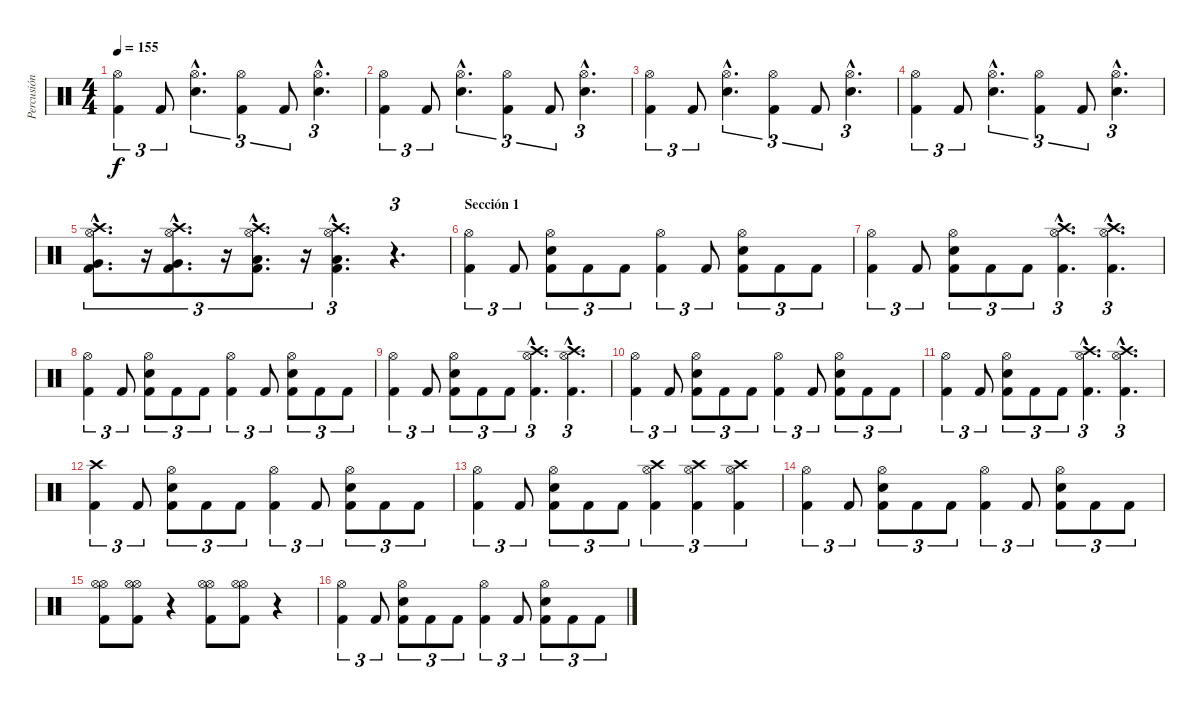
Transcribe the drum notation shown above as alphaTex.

\track ("Percusión" "Percusión") {instrument percussion}
\staff {score}
\articulation defaults
\ts (4 4)
\tempo 155
\clef neutral
\ks c
("Hi-Hat (open)" "Kick (hit) 2").4{tu (3 2) dy f} "Kick (hit) 2".8{tu (3 2)} ("Hi-Hat (open)"{hac} "Electric Snare (hit)"{hac}).4{d tu (3 2)} ("Hi-Hat (open)" "Kick (hit) 2").4{tu (3 2)} "Kick (hit) 2".8{tu (3 2)} ("Hi-Hat (open)"{hac} "Electric Snare (hit)"{hac}).4{d tu (3 2)} |
("Hi-Hat (open)" "Kick (hit) 2").4{tu (3 2)} "Kick (hit) 2".8{tu (3 2)} ("Hi-Hat (open)"{hac} "Electric Snare (hit)"{hac}).4{d tu (3 2)} ("Hi-Hat (open)" "Kick (hit) 2").4{tu (3 2)} "Kick (hit) 2".8{tu (3 2)} ("Hi-Hat (open)"{hac} "Electric Snare (hit)"{hac}).4{d tu (3 2)} |
("Hi-Hat (open)" "Kick (hit) 2").4{tu (3 2)} "Kick (hit) 2".8{tu (3 2)} ("Hi-Hat (open)"{hac} "Electric Snare (hit)"{hac}).4{d tu (3 2)} ("Hi-Hat (open)" "Kick (hit) 2").4{tu (3 2)} "Kick (hit) 2".8{tu (3 2)} ("Hi-Hat (open)"{hac} "Electric Snare (hit)"{hac}).4{d tu (3 2)} |
("Hi-Hat (open)" "Kick (hit) 2").4{tu (3 2)} "Kick (hit) 2".8{tu (3 2)} ("Hi-Hat (open)"{hac} "Electric Snare (hit)"{hac}).4{d tu (3 2)} ("Hi-Hat (open)" "Kick (hit) 2").4{tu (3 2)} "Kick (hit) 2".8{tu (3 2)} ("Hi-Hat (open)"{hac} "Electric Snare (hit)"{hac}).4{d tu (3 2)} |
("Crash high (hit)"{hac} "Hi-Hat (open)"{hac} "Very Low Tom (hit)"{hac} "Kick (hit) 2"{hac}).8{d tu (3 2)} r.16{tu (3 2)} ("Crash high (hit)"{hac} "Hi-Hat (open)"{hac} "Very Low Tom (hit)"{hac} "Kick (hit) 2"{hac}).8{d tu (3 2)} r.16{tu (3 2)} ("Crash high (hit)"{hac} "Hi-Hat (open)"{hac} "Low Tom (hit)"{hac} "Kick (hit) 2"{hac}).8{d tu (3 2)} r.16{tu (3 2)} ("Crash high (hit)"{hac} "Hi-Hat (open)"{hac} "Low Tom (hit)"{hac} "Kick (hit) 2"{hac}).4{d tu (3 2)} r.4{d tu (3 2)} |
\section ("" "Sección 1")
("Hi-Hat (open)" "Kick (hit) 2").4{tu (3 2)} "Kick (hit) 2".8{tu (3 2)} ("Hi-Hat (open)" "Electric Snare (hit)" "Kick (hit) 2").8{tu (3 2)} "Kick (hit) 2".8{tu (3 2)} "Kick (hit) 2".8{tu (3 2)} ("Hi-Hat (open)" "Kick (hit) 2").4{tu (3 2)} "Kick (hit) 2".8{tu (3 2)} ("Hi-Hat (open)" "Electric Snare (hit)" "Kick (hit) 2").8{tu (3 2)} "Kick (hit) 2".8{tu (3 2)} "Kick (hit) 2".8{tu (3 2)} |
("Hi-Hat (open)" "Kick (hit) 2").4{tu (3 2)} "Kick (hit) 2".8{tu (3 2)} ("Hi-Hat (open)" "Electric Snare (hit)" "Kick (hit) 2").8{tu (3 2)} "Kick (hit) 2".8{tu (3 2)} "Kick (hit) 2".8{tu (3 2)} ("Hi-Hat (open)"{hac} "Crash high (hit)"{hac} "Kick (hit) 2"{hac}).4{d tu (3 2)} ("Hi-Hat (open)"{hac} "Crash high (hit)"{hac} "Kick (hit) 2"{hac}).4{d tu (3 2)} |
("Hi-Hat (open)" "Kick (hit) 2").4{tu (3 2)} "Kick (hit) 2".8{tu (3 2)} ("Hi-Hat (open)" "Electric Snare (hit)" "Kick (hit) 2").8{tu (3 2)} "Kick (hit) 2".8{tu (3 2)} "Kick (hit) 2".8{tu (3 2)} ("Hi-Hat (open)" "Kick (hit) 2").4{tu (3 2)} "Kick (hit) 2".8{tu (3 2)} ("Hi-Hat (open)" "Electric Snare (hit)" "Kick (hit) 2").8{tu (3 2)} "Kick (hit) 2".8{tu (3 2)} "Kick (hit) 2".8{tu (3 2)} |
("Hi-Hat (open)" "Kick (hit) 2").4{tu (3 2)} "Kick (hit) 2".8{tu (3 2)} ("Hi-Hat (open)" "Electric Snare (hit)" "Kick (hit) 2").8{tu (3 2)} "Kick (hit) 2".8{tu (3 2)} "Kick (hit) 2".8{tu (3 2)} ("Hi-Hat (open)"{hac} "Crash high (hit)"{hac} "Kick (hit) 2"{hac}).4{d tu (3 2)} ("Hi-Hat (open)"{hac} "Crash high (hit)"{hac} "Kick (hit) 2"{hac}).4{d tu (3 2)} |
("Hi-Hat (open)" "Kick (hit) 2").4{tu (3 2)} "Kick (hit) 2".8{tu (3 2)} ("Hi-Hat (open)" "Electric Snare (hit)" "Kick (hit) 2").8{tu (3 2)} "Kick (hit) 2".8{tu (3 2)} "Kick (hit) 2".8{tu (3 2)} ("Hi-Hat (open)" "Kick (hit) 2").4{tu (3 2)} "Kick (hit) 2".8{tu (3 2)} ("Hi-Hat (open)" "Electric Snare (hit)" "Kick (hit) 2").8{tu (3 2)} "Kick (hit) 2".8{tu (3 2)} "Kick (hit) 2".8{tu (3 2)} |
("Hi-Hat (open)" "Kick (hit) 2").4{tu (3 2)} "Kick (hit) 2".8{tu (3 2)} ("Hi-Hat (open)" "Electric Snare (hit)" "Kick (hit) 2").8{tu (3 2)} "Kick (hit) 2".8{tu (3 2)} "Kick (hit) 2".8{tu (3 2)} ("Hi-Hat (open)"{hac} "Crash high (hit)"{hac} "Kick (hit) 2"{hac}).4{d tu (3 2)} ("Hi-Hat (open)"{hac} "Crash high (hit)"{hac} "Kick (hit) 2"{hac}).4{d tu (3 2)} |
("Crash high (hit)" "Kick (hit) 2").4{tu (3 2)} "Kick (hit) 2".8{tu (3 2)} ("Hi-Hat (open)" "Electric Snare (hit)" "Kick (hit) 2").8{tu (3 2)} "Kick (hit) 2".8{tu (3 2)} "Kick (hit) 2".8{tu (3 2)} ("Hi-Hat (open)" "Kick (hit) 2").4{tu (3 2)} "Kick (hit) 2".8{tu (3 2)} ("Hi-Hat (open)" "Electric Snare (hit)" "Kick (hit) 2").8{tu (3 2)} "Kick (hit) 2".8{tu (3 2)} "Kick (hit) 2".8{tu (3 2)} |
("Hi-Hat (open)" "Kick (hit) 2").4{tu (3 2)} "Kick (hit) 2".8{tu (3 2)} ("Hi-Hat (open)" "Electric Snare (hit)" "Kick (hit) 2").8{tu (3 2)} "Kick (hit) 2".8{tu (3 2)} "Kick (hit) 2".8{tu (3 2)} ("Hi-Hat (open)" "Crash high (hit)" "Kick (hit) 2").4{tu (3 2)} ("Hi-Hat (open)" "Crash high (hit)" "Kick (hit) 2").4{tu (3 2)} ("Hi-Hat (open)" "Crash high (hit)" "Kick (hit) 2").4{tu (3 2)} |
("Hi-Hat (open)" "Kick (hit) 2").4{tu (3 2)} "Kick (hit) 2".8{tu (3 2)} ("Hi-Hat (open)" "Electric Snare (hit)" "Kick (hit) 2").8{tu (3 2)} "Kick (hit) 2".8{tu (3 2)} "Kick (hit) 2".8{tu (3 2)} ("Hi-Hat (open)" "Kick (hit) 2").4{tu (3 2)} "Kick (hit) 2".8{tu (3 2)} ("Hi-Hat (open)" "Electric Snare (hit)" "Kick (hit) 2").8{tu (3 2)} "Kick (hit) 2".8{tu (3 2)} "Kick (hit) 2".8{tu (3 2)} |
("Hi-Hat (open)" "Hi-Hat (open)" "Kick (hit) 2").8 ("Hi-Hat (open)" "Hi-Hat (open)" "Kick (hit) 2").8 r.4 ("Hi-Hat (open)" "Hi-Hat (open)" "Kick (hit) 2").8 ("Hi-Hat (open)" "Hi-Hat (open)" "Kick (hit) 2").8 r.4 |
("Hi-Hat (open)" "Kick (hit) 2").4{tu (3 2)} "Kick (hit) 2".8{tu (3 2)} ("Hi-Hat (open)" "Electric Snare (hit)" "Kick (hit) 2").8{tu (3 2)} "Kick (hit) 2".8{tu (3 2)} "Kick (hit) 2".8{tu (3 2)} ("Hi-Hat (open)" "Kick (hit) 2").4{tu (3 2)} "Kick (hit) 2".8{tu (3 2)} ("Hi-Hat (open)" "Electric Snare (hit)" "Kick (hit) 2").8{tu (3 2)} "Kick (hit) 2".8{tu (3 2)} "Kick (hit) 2".8{tu (3 2)}
